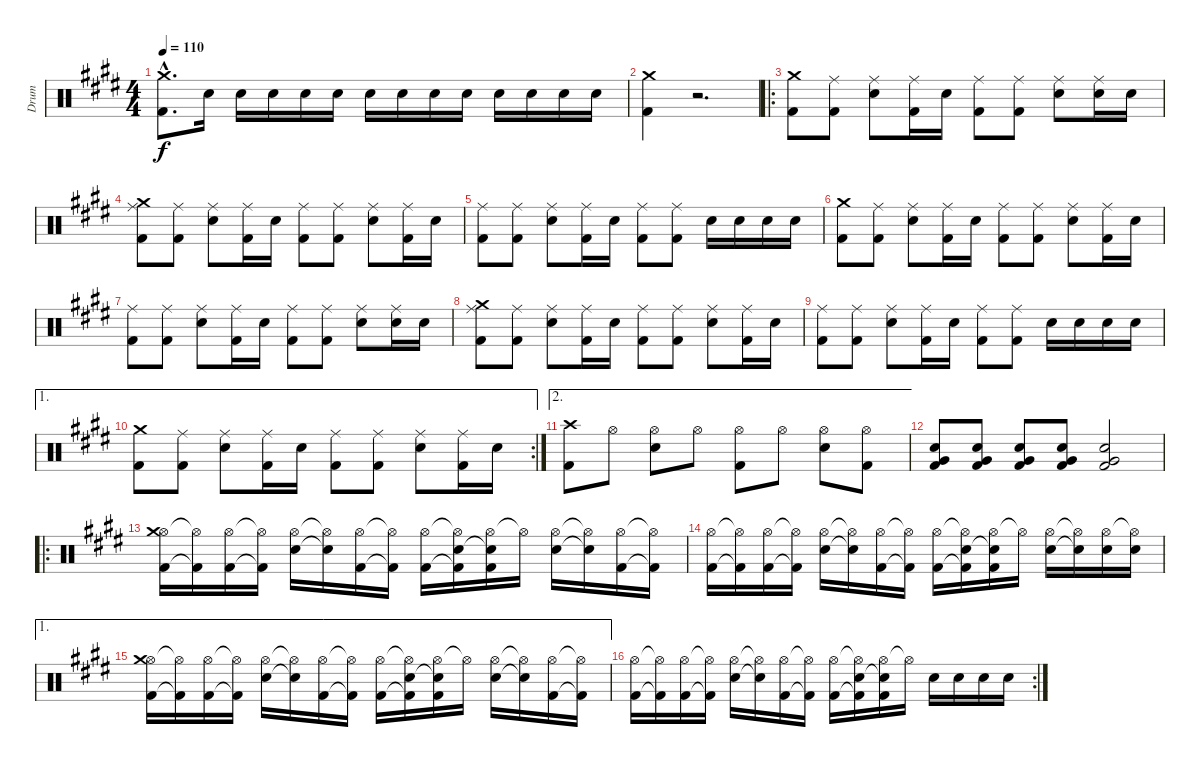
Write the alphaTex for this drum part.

\track ("Drum" "Drum") {instrument percussion}
\staff {score}
\articulation defaults
\ts (4 4)
\tempo 110
\clef neutral
\ks c#minor
("Crash medium (hit)"{hac} "Kick (hit) 2"{hac}).8{d dy f} "Snare (hit) 2".16 "Snare (hit) 2".16 "Snare (hit) 2".16 "Snare (hit) 2".16 "Snare (hit) 2".16 "Snare (hit) 2".16 "Snare (hit) 2".16 "Snare (hit) 2".16 "Snare (hit) 2".16 "Snare (hit) 2".16 "Snare (hit) 2".16 "Snare (hit) 2".16 "Snare (hit) 2".16 |
("Crash medium (hit)" "Kick (hit) 2").4 r.2{d} |
\ro
("Crash medium (hit)" "Kick (hit) 2").8 ("Ride (middle)" "Kick (hit) 2").8 ("Ride (middle)" "Snare (hit) 2").8 ("Ride (middle)" "Kick (hit) 2").16 "Snare (hit) 2".16 ("Ride (middle)" "Kick (hit) 2").8 ("Ride (middle)" "Kick (hit) 2").8 ("Ride (middle)" "Snare (hit) 2").8 ("Ride (middle)" "Snare (hit) 2").16 "Snare (hit) 2".16 |
("Ride (middle)" "Kick (hit) 2" "Crash medium (hit)").8 ("Ride (middle)" "Kick (hit) 2").8 ("Ride (middle)" "Snare (hit) 2").8 ("Ride (middle)" "Kick (hit) 2").16 "Snare (hit) 2".16 ("Ride (middle)" "Kick (hit) 2").8 ("Ride (middle)" "Kick (hit) 2").8 ("Ride (middle)" "Snare (hit) 2").8 ("Ride (middle)" "Kick (hit) 2").16 "Snare (hit) 2".16 |
("Ride (middle)" "Kick (hit) 2").8 ("Ride (middle)" "Kick (hit) 2").8 ("Ride (middle)" "Snare (hit) 2").8 ("Ride (middle)" "Kick (hit) 2").16 "Snare (hit) 2".16 ("Ride (middle)" "Kick (hit) 2").8 ("Ride (middle)" "Kick (hit) 2").8 "Snare (hit) 2".16 "Snare (hit) 2".16 "Snare (hit) 2".16 "Snare (hit) 2".16 |
("Crash medium (hit)" "Kick (hit) 2").8 ("Ride (middle)" "Kick (hit) 2").8 ("Ride (middle)" "Snare (hit) 2").8 ("Ride (middle)" "Kick (hit) 2").16 "Snare (hit) 2".16 ("Ride (middle)" "Kick (hit) 2").8 ("Ride (middle)" "Kick (hit) 2").8 ("Ride (middle)" "Snare (hit) 2").8 ("Ride (middle)" "Kick (hit) 2").16 "Snare (hit) 2".16 |
("Ride (middle)" "Kick (hit) 2").8 ("Ride (middle)" "Kick (hit) 2").8 ("Ride (middle)" "Snare (hit) 2").8 ("Ride (middle)" "Kick (hit) 2").16 "Snare (hit) 2".16 ("Ride (middle)" "Kick (hit) 2").8 ("Ride (middle)" "Kick (hit) 2").8 ("Ride (middle)" "Snare (hit) 2").8 ("Ride (middle)" "Snare (hit) 2").16 "Snare (hit) 2".16 |
("Ride (middle)" "Kick (hit) 2" "Crash medium (hit)").8 ("Ride (middle)" "Kick (hit) 2").8 ("Ride (middle)" "Snare (hit) 2").8 ("Ride (middle)" "Kick (hit) 2").16 "Snare (hit) 2".16 ("Ride (middle)" "Kick (hit) 2").8 ("Ride (middle)" "Kick (hit) 2").8 ("Ride (middle)" "Snare (hit) 2").8 ("Ride (middle)" "Kick (hit) 2").16 "Snare (hit) 2".16 |
("Ride (middle)" "Kick (hit) 2").8 ("Ride (middle)" "Kick (hit) 2").8 ("Ride (middle)" "Snare (hit) 2").8 ("Ride (middle)" "Kick (hit) 2").16 "Snare (hit) 2".16 ("Ride (middle)" "Kick (hit) 2").8 ("Ride (middle)" "Kick (hit) 2").8 "Snare (hit) 2".16 "Snare (hit) 2".16 "Snare (hit) 2".16 "Snare (hit) 2".16 |
\ae 1
\rc 2
("Crash medium (hit)" "Kick (hit) 2").8 ("Ride (middle)" "Kick (hit) 2").8 ("Ride (middle)" "Snare (hit) 2").8 ("Ride (middle)" "Kick (hit) 2").16 "Snare (hit) 2".16 ("Ride (middle)" "Kick (hit) 2").8 ("Ride (middle)" "Kick (hit) 2").8 ("Ride (middle)" "Snare (hit) 2").8 ("Ride (middle)" "Kick (hit) 2").16 "Snare (hit) 2".16 |
\ae 2
("Crash high (hit)" "Kick (hit) 2").8 "Hi-Hat (open)".8 ("Hi-Hat (open)" "Snare (hit) 2").8 "Hi-Hat (open)".8 ("Hi-Hat (open)" "Kick (hit) 2").8 "Hi-Hat (open)".8 ("Hi-Hat (open)" "Snare (hit) 2").8 ("Hi-Hat (open)" "Kick (hit) 2").8 |
("Snare (hit) 2" "Kick (hit) 2" "Very Low Tom (hit)").8 ("Snare (hit) 2" "Kick (hit) 2" "Very Low Tom (hit)").8 ("Snare (hit) 2" "Kick (hit) 2" "Very Low Tom (hit)").8 ("Snare (hit) 2" "Kick (hit) 2" "Very Low Tom (hit)").8 ("Snare (hit) 2" "Kick (hit) 2" "Very Low Tom (hit)").2 |
\ro
("Hi-Hat (open)" "Kick (hit) 2" "Crash medium (hit)").16 ("Hi-Hat (open)"{t} "Kick (hit) 2"{t}).16 ("Hi-Hat (open)" "Kick (hit) 2").16 ("Hi-Hat (open)"{t} "Kick (hit) 2"{t}).16 ("Hi-Hat (open)" "Snare (hit) 2").16 ("Hi-Hat (open)"{t} "Snare (hit) 2"{t}).16 ("Hi-Hat (open)" "Kick (hit) 2").16 ("Hi-Hat (open)"{t} "Kick (hit) 2"{t}).16 ("Hi-Hat (open)" "Kick (hit) 2").16 ("Hi-Hat (open)"{t} "Kick (hit) 2"{t} "Snare (hit) 2").16 ("Hi-Hat (open)" "Kick (hit) 2" "Snare (hit) 2"{t}).16 "Hi-Hat (open)"{t}.16 ("Hi-Hat (open)" "Snare (hit) 2").16 ("Hi-Hat (open)"{t} "Snare (hit) 2"{t}).16 ("Hi-Hat (open)" "Kick (hit) 2").16 ("Hi-Hat (open)"{t} "Kick (hit) 2"{t}).16 |
("Hi-Hat (open)" "Kick (hit) 2").16 ("Hi-Hat (open)"{t} "Kick (hit) 2"{t}).16 ("Hi-Hat (open)" "Kick (hit) 2").16 ("Hi-Hat (open)"{t} "Kick (hit) 2"{t}).16 ("Hi-Hat (open)" "Snare (hit) 2").16 ("Hi-Hat (open)"{t} "Snare (hit) 2"{t}).16 ("Hi-Hat (open)" "Kick (hit) 2").16 ("Hi-Hat (open)"{t} "Kick (hit) 2"{t}).16 ("Hi-Hat (open)" "Kick (hit) 2").16 ("Hi-Hat (open)"{t} "Kick (hit) 2"{t} "Snare (hit) 2").16 ("Hi-Hat (open)" "Kick (hit) 2" "Snare (hit) 2"{t}).16 "Hi-Hat (open)"{t}.16 ("Hi-Hat (open)" "Snare (hit) 2").16 ("Hi-Hat (open)"{t} "Snare (hit) 2"{t}).16 ("Hi-Hat (open)" "Snare (hit) 2").16 ("Hi-Hat (open)"{t} "Snare (hit) 2").16 |
\ae 1
("Hi-Hat (open)" "Kick (hit) 2" "Crash medium (hit)").16 ("Hi-Hat (open)"{t} "Kick (hit) 2"{t}).16 ("Hi-Hat (open)" "Kick (hit) 2").16 ("Hi-Hat (open)"{t} "Kick (hit) 2"{t}).16 ("Hi-Hat (open)" "Snare (hit) 2").16 ("Hi-Hat (open)"{t} "Snare (hit) 2"{t}).16 ("Hi-Hat (open)" "Kick (hit) 2").16 ("Hi-Hat (open)"{t} "Kick (hit) 2"{t}).16 ("Hi-Hat (open)" "Kick (hit) 2").16 ("Hi-Hat (open)"{t} "Kick (hit) 2"{t} "Snare (hit) 2").16 ("Hi-Hat (open)" "Kick (hit) 2" "Snare (hit) 2"{t}).16 "Hi-Hat (open)"{t}.16 ("Hi-Hat (open)" "Snare (hit) 2").16 ("Hi-Hat (open)"{t} "Snare (hit) 2"{t}).16 ("Hi-Hat (open)" "Kick (hit) 2").16 ("Hi-Hat (open)"{t} "Kick (hit) 2"{t}).16 |
\rc 2
("Hi-Hat (open)" "Kick (hit) 2").16 ("Hi-Hat (open)"{t} "Kick (hit) 2"{t}).16 ("Hi-Hat (open)" "Kick (hit) 2").16 ("Hi-Hat (open)"{t} "Kick (hit) 2"{t}).16 ("Hi-Hat (open)" "Snare (hit) 2").16 ("Hi-Hat (open)"{t} "Snare (hit) 2"{t}).16 ("Hi-Hat (open)" "Kick (hit) 2").16 ("Hi-Hat (open)"{t} "Kick (hit) 2"{t}).16 ("Hi-Hat (open)" "Kick (hit) 2").16 ("Hi-Hat (open)"{t} "Kick (hit) 2"{t} "Snare (hit) 2").16 ("Hi-Hat (open)" "Kick (hit) 2" "Snare (hit) 2"{t}).16 "Hi-Hat (open)"{t}.16 "Snare (hit) 2".16 "Snare (hit) 2".16 "Snare (hit) 2".16 "Snare (hit) 2".16
